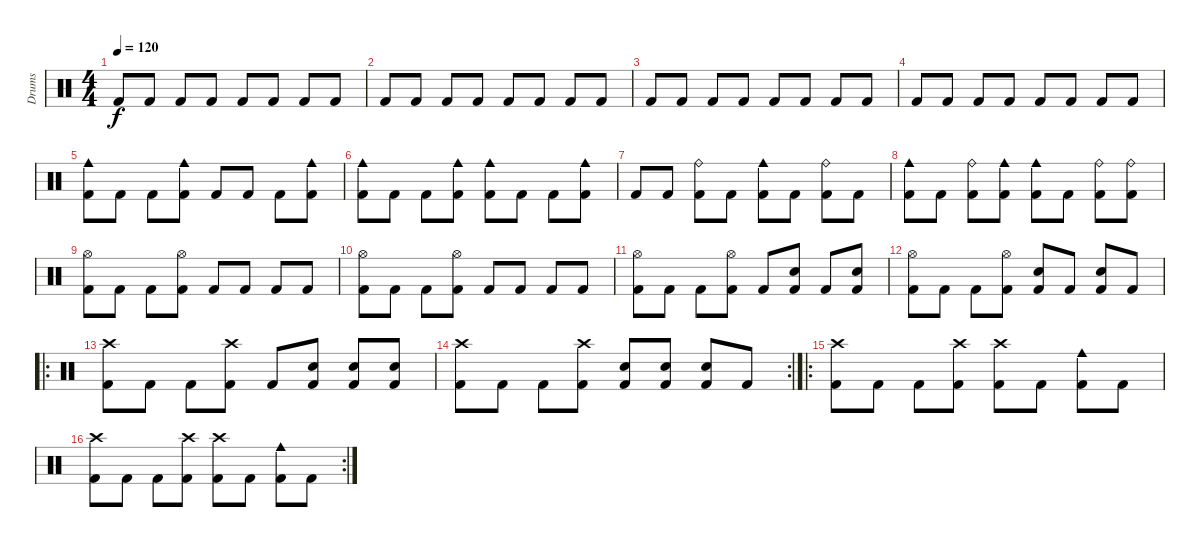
\track ("Drums" "Drums") {instrument percussion}
\staff {score}
\articulation defaults
\ts (4 4)
\tempo 120
\clef neutral
\ks c "Kick (hit) 2".8{dy f} "Kick (hit) 2".8 "Kick (hit) 2".8 "Kick (hit) 2".8 "Kick (hit) 2".8 "Kick (hit) 2".8 "Kick (hit) 2".8 "Kick (hit) 2".8
|
"Kick (hit) 2".8 "Kick (hit) 2".8 "Kick (hit) 2".8 "Kick (hit) 2".8 "Kick (hit) 2".8 "Kick (hit) 2".8 "Kick (hit) 2".8 "Kick (hit) 2".8 |
"Kick (hit) 2".8 "Kick (hit) 2".8 "Kick (hit) 2".8 "Kick (hit) 2".8 "Kick (hit) 2".8 "Kick (hit) 2".8 "Kick (hit) 2".8 "Kick (hit) 2".8 |
"Kick (hit) 2".8 "Kick (hit) 2".8 "Kick (hit) 2".8 "Kick (hit) 2".8 "Kick (hit) 2".8 "Kick (hit) 2".8 "Kick (hit) 2".8 "Kick (hit) 2".8 |
("Cowbell medium (hit)" "Kick (hit) 2").8 "Kick (hit) 2".8 "Kick (hit) 2".8 ("Cowbell medium (hit)" "Kick (hit) 2").8 "Kick (hit) 2".8 "Kick (hit) 2".8 "Kick (hit) 2".8 ("Cowbell medium (hit)" "Kick (hit) 2").8 |
("Cowbell medium (hit)" "Kick (hit) 2").8 "Kick (hit) 2".8 "Kick (hit) 2".8 ("Cowbell medium (hit)" "Kick (hit) 2").8 ("Cowbell medium (hit)" "Kick (hit) 2").8 "Kick (hit) 2".8 "Kick (hit) 2".8 ("Cowbell medium (hit)" "Kick (hit) 2").8 |
"Kick (hit) 2".8 "Kick (hit) 2".8 ("Ride (bell)" "Kick (hit) 2").8 "Kick (hit) 2".8 ("Cowbell medium (hit)" "Kick (hit) 2").8 "Kick (hit) 2".8 ("Ride (bell)" "Kick (hit) 2").8 "Kick (hit) 2".8 |
("Cowbell medium (hit)" "Kick (hit) 2").8 "Kick (hit) 2".8 ("Ride (bell)" "Kick (hit) 2").8 ("Cowbell medium (hit)" "Kick (hit) 2").8 ("Cowbell medium (hit)" "Kick (hit) 2").8 "Kick (hit) 2".8 ("Ride (bell)" "Kick (hit) 2").8 ("Ride (bell)" "Kick (hit) 2").8 |
("Hi-Hat (open)" "Kick (hit) 2").8 "Kick (hit) 2".8 "Kick (hit) 2".8 ("Hi-Hat (open)" "Kick (hit) 2").8 "Kick (hit) 2".8 "Kick (hit) 2".8 "Kick (hit) 2".8 "Kick (hit) 2".8 |
("Hi-Hat (open)" "Kick (hit) 2").8 "Kick (hit) 2".8 "Kick (hit) 2".8 ("Hi-Hat (open)" "Kick (hit) 2").8 "Kick (hit) 2".8 "Kick (hit) 2".8 "Kick (hit) 2".8 "Kick (hit) 2".8 |
("Hi-Hat (open)" "Kick (hit) 2").8 "Kick (hit) 2".8 "Kick (hit) 2".8 ("Hi-Hat (open)" "Kick (hit) 2").8 "Kick (hit) 2".8 ("Electric Snare (hit)" "Kick (hit) 2").8 "Kick (hit) 2".8 ("Electric Snare (hit)" "Kick (hit) 2").8 |
("Hi-Hat (open)" "Kick (hit) 2").8 "Kick (hit) 2".8 "Kick (hit) 2".8 ("Hi-Hat (open)" "Kick (hit) 2").8 ("Electric Snare (hit)" "Kick (hit) 2").8 "Kick (hit) 2".8 ("Electric Snare (hit)" "Kick (hit) 2").8 "Kick (hit) 2".8 |
\ro
("Crash high (hit)" "Kick (hit) 2").8 "Kick (hit) 2".8 "Kick (hit) 2".8 ("Crash high (hit)" "Kick (hit) 2").8 "Kick (hit) 2".8 ("Electric Snare (hit)" "Kick (hit) 2").8 ("Electric Snare (hit)" "Kick (hit) 2").8 ("Electric Snare (hit)" "Kick (hit) 2").8 |
\rc 2
("Crash high (hit)" "Kick (hit) 2").8 "Kick (hit) 2".8 "Kick (hit) 2".8 ("Crash high (hit)" "Kick (hit) 2").8 ("Electric Snare (hit)" "Kick (hit) 2").8 ("Electric Snare (hit)" "Kick (hit) 2").8 ("Electric Snare (hit)" "Kick (hit) 2").8 "Kick (hit) 2".8 |
\ro
("Crash high (hit)" "Kick (hit) 2").8 "Kick (hit) 2".8 "Kick (hit) 2".8 ("Crash high (hit)" "Kick (hit) 2").8 ("Crash high (hit)" "Kick (hit) 2").8 "Kick (hit) 2".8 ("Cowbell medium (hit)" "Kick (hit) 2").8 "Kick (hit) 2".8 |
\rc 2
("Crash high (hit)" "Kick (hit) 2").8 "Kick (hit) 2".8 "Kick (hit) 2".8 ("Crash high (hit)" "Kick (hit) 2").8 ("Crash high (hit)" "Kick (hit) 2").8 "Kick (hit) 2".8 ("Cowbell medium (hit)" "Kick (hit) 2").8 "Kick (hit) 2".8
